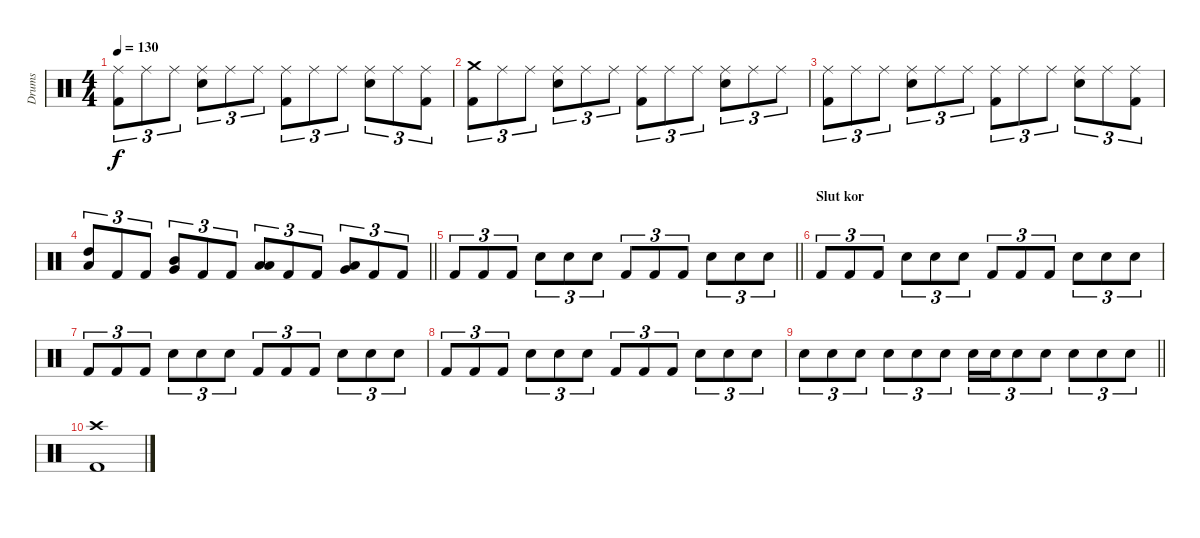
\track ("Drums" "Drums") {instrument percussion}
\staff {score}
\articulation defaults
\ts (4 4)
\tempo 130
\clef neutral
\ks c
("Ride (middle)" "Kick (hit) 2").8{tu (3 2) dy f} "Ride (middle)".8{tu (3 2)} "Ride (middle)".8{tu (3 2)} ("Ride (middle)" "Snare (hit) 2").8{tu (3 2)} "Ride (middle)".8{tu (3 2)} "Ride (middle)".8{tu (3 2)} ("Ride (middle)" "Kick (hit) 2").8{tu (3 2)} "Ride (middle)".8{tu (3 2)} "Ride (middle)".8{tu (3 2)} ("Ride (middle)" "Snare (hit) 2").8{tu (3 2)} "Ride (middle)".8{tu (3 2)} ("Ride (middle)" "Kick (hit) 2").8{tu (3 2)} |
("Crash medium (hit)" "Kick (hit) 2").8{tu (3 2)} "Ride (middle)".8{tu (3 2)} "Ride (middle)".8{tu (3 2)} ("Ride (middle)" "Snare (hit) 2").8{tu (3 2)} "Ride (middle)".8{tu (3 2)} "Ride (middle)".8{tu (3 2)} ("Ride (middle)" "Kick (hit) 2").8{tu (3 2)} "Ride (middle)".8{tu (3 2)} "Ride (middle)".8{tu (3 2)} ("Ride (middle)" "Snare (hit) 2").8{tu (3 2)} "Ride (middle)".8{tu (3 2)} "Ride (middle)".8{tu (3 2)} |
("Ride (middle)" "Kick (hit) 2").8{tu (3 2)} "Ride (middle)".8{tu (3 2)} "Ride (middle)".8{tu (3 2)} ("Ride (middle)" "Snare (hit) 2").8{tu (3 2)} "Ride (middle)".8{tu (3 2)} "Ride (middle)".8{tu (3 2)} ("Ride (middle)" "Kick (hit) 2").8{tu (3 2)} "Ride (middle)".8{tu (3 2)} "Ride (middle)".8{tu (3 2)} ("Ride (middle)" "Snare (hit) 2").8{tu (3 2)} "Ride (middle)".8{tu (3 2)} ("Ride (middle)" "Kick (hit) 2").8{tu (3 2)} |
\barLineRight lightlight
("High Tom (hit)" "Low Tom (hit)").8{tu (3 2)} "Kick (hit) 2".8{tu (3 2)} "Kick (hit) 2".8{tu (3 2)} ("Mid Tom (hit)" "Very Low Tom (hit)").8{tu (3 2)} "Kick (hit) 2".8{tu (3 2)} "Kick (hit) 2".8{tu (3 2)} ("Low Tom (hit)" "Low Floor Tom (hit)").8{tu (3 2)} "Kick (hit) 2".8{tu (3 2)} "Kick (hit) 2".8{tu (3 2)} ("Low Tom (hit)" "Very Low Tom (hit)").8{tu (3 2)} "Kick (hit) 2".8{tu (3 2)} "Kick (hit) 2".8{tu (3 2)} |
\barLineRight lightlight "Kick (hit) 2".8{tu (3 2)} "Kick (hit) 2".8{tu (3 2)} "Kick (hit) 2".8{tu (3 2)} "Snare (hit) 2".8{tu (3 2)} "Snare (hit) 2".8{tu (3 2)} "Snare (hit) 2".8{tu (3 2)} "Kick (hit) 2".8{tu (3 2)} "Kick (hit) 2".8{tu (3 2)} "Kick (hit) 2".8{tu (3 2)} "Snare (hit) 2".8{tu (3 2)} "Snare (hit) 2".8{tu (3 2)} "Snare (hit) 2".8{tu (3 2)}
|
\section ("" "Slut kor")
"Kick (hit) 2".8{tu (3 2)} "Kick (hit) 2".8{tu (3 2)} "Kick (hit) 2".8{tu (3 2)} "Snare (hit) 2".8{tu (3 2)} "Snare (hit) 2".8{tu (3 2)} "Snare (hit) 2".8{tu (3 2)} "Kick (hit) 2".8{tu (3 2)} "Kick (hit) 2".8{tu (3 2)} "Kick (hit) 2".8{tu (3 2)} "Snare (hit) 2".8{tu (3 2)} "Snare (hit) 2".8{tu (3 2)} "Snare (hit) 2".8{tu (3 2)} |
"Kick (hit) 2".8{tu (3 2)} "Kick (hit) 2".8{tu (3 2)} "Kick (hit) 2".8{tu (3 2)} "Snare (hit) 2".8{tu (3 2)} "Snare (hit) 2".8{tu (3 2)} "Snare (hit) 2".8{tu (3 2)} "Kick (hit) 2".8{tu (3 2)} "Kick (hit) 2".8{tu (3 2)} "Kick (hit) 2".8{tu (3 2)} "Snare (hit) 2".8{tu (3 2)} "Snare (hit) 2".8{tu (3 2)} "Snare (hit) 2".8{tu (3 2)} |
"Kick (hit) 2".8{tu (3 2)} "Kick (hit) 2".8{tu (3 2)} "Kick (hit) 2".8{tu (3 2)} "Snare (hit) 2".8{tu (3 2)} "Snare (hit) 2".8{tu (3 2)} "Snare (hit) 2".8{tu (3 2)} "Kick (hit) 2".8{tu (3 2)} "Kick (hit) 2".8{tu (3 2)} "Kick (hit) 2".8{tu (3 2)} "Snare (hit) 2".8{tu (3 2)} "Snare (hit) 2".8{tu (3 2)} "Snare (hit) 2".8{tu (3 2)} |
\barLineRight lightlight "Snare (hit) 2".8{tu (3 2)} "Snare (hit) 2".8{tu (3 2)} "Snare (hit) 2".8{tu (3 2)} "Snare (hit) 2".8{tu (3 2)} "Snare (hit) 2".8{tu (3 2)} "Snare (hit) 2".8{tu (3 2)} "Snare (hit) 2".16{tu (3 2)} "Snare (hit) 2".16{tu (3 2)} "Snare (hit) 2".8{tu (3 2)} "Snare (hit) 2".8{tu (3 2)} "Snare (hit) 2".8{tu (3 2)} "Snare (hit) 2".8{tu (3 2)} "Snare (hit) 2".8{tu (3 2)}
|
("Crash high (hit)" "Kick (hit) 2").1
